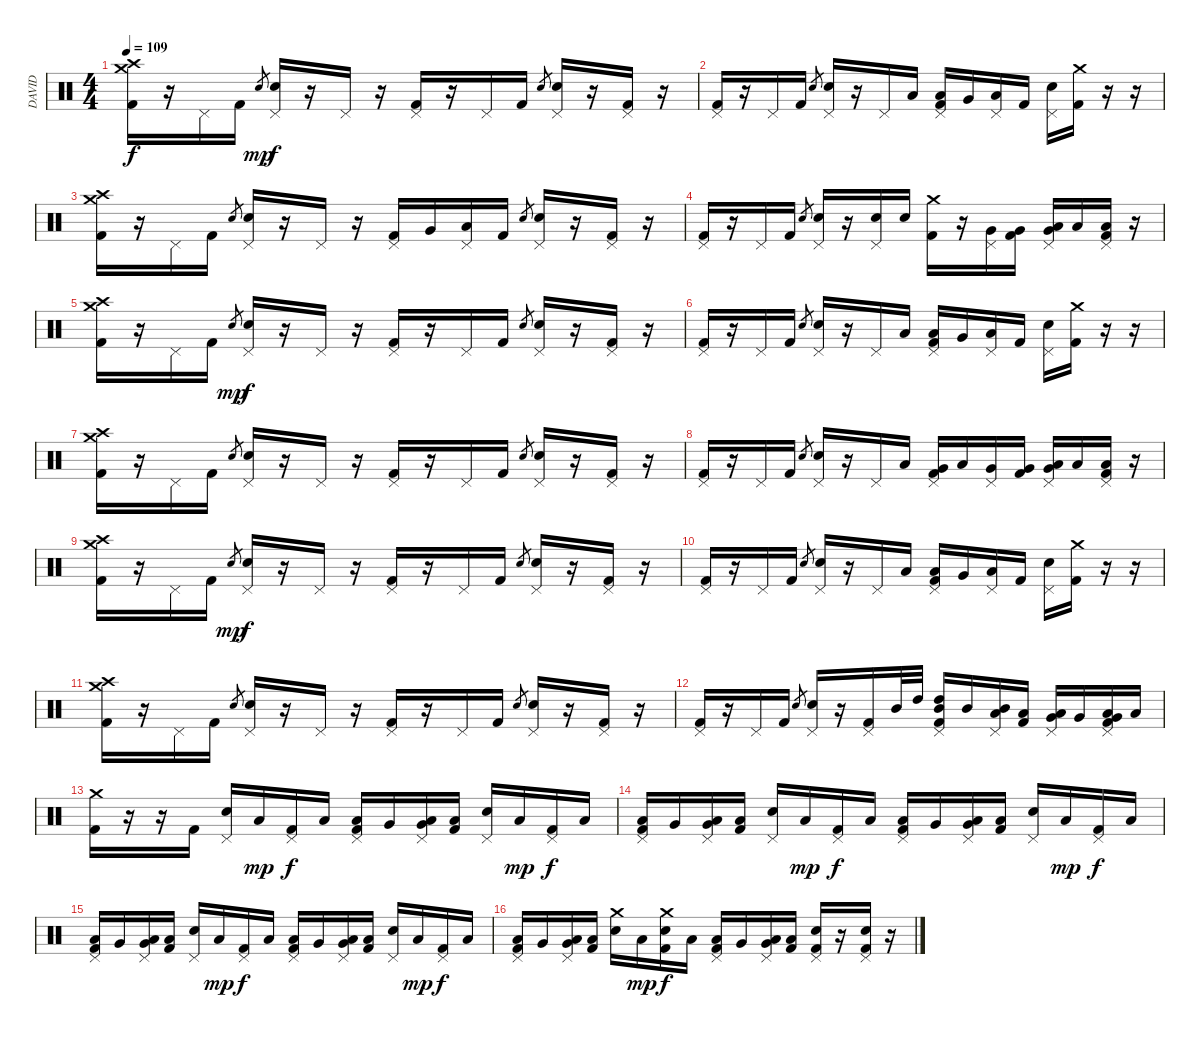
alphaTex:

\track ("DAVID" "DAVID") {instrument percussion}
\staff {score}
\articulation defaults
\ts (4 4)
\tempo 109
\clef neutral
\ks c
("Crash medium (hit)" "Crash high (hit)" "Kick (hit) 2").16{dy f} r.16 "Pedal Hi-Hat (hit)".16 "Kick (hit) 2".16 "Snare (hit) 2".8{gr dy mp} ("Pedal Hi-Hat (hit)" "Snare (hit) 2").16{dy f} r.16 "Pedal Hi-Hat (hit)".16 r.16 ("Pedal Hi-Hat (hit)" "Kick (hit) 2").16 r.16 "Pedal Hi-Hat (hit)".16 "Kick (hit) 2".16 "Snare (hit) 2".8{gr} ("Pedal Hi-Hat (hit)" "Snare (hit) 2").16 r.16 ("Pedal Hi-Hat (hit)" "Kick (hit) 2").16 r.16 |
("Pedal Hi-Hat (hit)" "Kick (hit) 2").16 r.16 "Pedal Hi-Hat (hit)".16 "Kick (hit) 2".16 "Snare (hit) 2".8{gr} ("Pedal Hi-Hat (hit)" "Snare (hit) 2").16 r.16 "Pedal Hi-Hat (hit)".16 "Low Tom (hit)".16 ("Pedal Hi-Hat (hit)" "Low Tom (hit)" "Kick (hit) 2").16 "Very Low Tom (hit)".16 ("Pedal Hi-Hat (hit)" "Low Floor Tom (hit)").16 "Kick (hit) 2".16 ("Pedal Hi-Hat (hit)" "Snare (hit) 2").16 ("Crash medium (hit)" "Kick (hit) 2").16 r.16 r.16 |
("Crash medium (hit)" "Crash high (hit)" "Kick (hit) 2").16 r.16 "Pedal Hi-Hat (hit)".16 "Kick (hit) 2".16 "Snare (hit) 2".8{gr} ("Pedal Hi-Hat (hit)" "Snare (hit) 2").16 r.16 "Pedal Hi-Hat (hit)".16 r.16 ("Pedal Hi-Hat (hit)" "Kick (hit) 2").16 "Very Low Tom (hit)".16 ("Pedal Hi-Hat (hit)" "Low Floor Tom (hit)").16 "Kick (hit) 2".16 "Snare (hit) 2".8{gr} ("Pedal Hi-Hat (hit)" "Snare (hit) 2").16 r.16 ("Pedal Hi-Hat (hit)" "Kick (hit) 2").16 r.16 |
("Pedal Hi-Hat (hit)" "Kick (hit) 2").16 r.16 "Pedal Hi-Hat (hit)".16 "Kick (hit) 2".16 "Snare (hit) 2".8{gr} ("Pedal Hi-Hat (hit)" "Snare (hit) 2").16 r.16 ("Pedal Hi-Hat (hit)" "Snare (hit) 2").16 "Snare (hit) 2".16 ("Crash medium (hit)" "Kick (hit) 2").16 r.16 ("Pedal Hi-Hat (hit)" "Very Low Tom (hit)").16 ("Very Low Tom (hit)" "Kick (hit) 2").16 ("Pedal Hi-Hat (hit)" "Very Low Tom (hit)" "Low Floor Tom (hit)").16 "Low Floor Tom (hit)".16 ("Pedal Hi-Hat (hit)" "Low Floor Tom (hit)" "Kick (hit) 2").16 r.16 |
("Crash medium (hit)" "Crash high (hit)" "Kick (hit) 2").16 r.16 "Pedal Hi-Hat (hit)".16 "Kick (hit) 2".16 "Snare (hit) 2".8{gr dy mp} ("Pedal Hi-Hat (hit)" "Snare (hit) 2").16{dy f} r.16 "Pedal Hi-Hat (hit)".16 r.16 ("Pedal Hi-Hat (hit)" "Kick (hit) 2").16 r.16 "Pedal Hi-Hat (hit)".16 "Kick (hit) 2".16 "Snare (hit) 2".8{gr} ("Pedal Hi-Hat (hit)" "Snare (hit) 2").16 r.16 ("Pedal Hi-Hat (hit)" "Kick (hit) 2").16 r.16 |
("Pedal Hi-Hat (hit)" "Kick (hit) 2").16 r.16 "Pedal Hi-Hat (hit)".16 "Kick (hit) 2".16 "Snare (hit) 2".8{gr} ("Pedal Hi-Hat (hit)" "Snare (hit) 2").16 r.16 "Pedal Hi-Hat (hit)".16 "Low Tom (hit)".16 ("Pedal Hi-Hat (hit)" "Low Tom (hit)" "Kick (hit) 2").16 "Very Low Tom (hit)".16 ("Pedal Hi-Hat (hit)" "Low Floor Tom (hit)").16 "Kick (hit) 2".16 ("Pedal Hi-Hat (hit)" "Snare (hit) 2").16 ("Crash medium (hit)" "Kick (hit) 2").16 r.16 r.16 |
("Crash medium (hit)" "Crash high (hit)" "Kick (hit) 2").16 r.16 "Pedal Hi-Hat (hit)".16 "Kick (hit) 2".16 "Snare (hit) 2".8{gr} ("Pedal Hi-Hat (hit)" "Snare (hit) 2").16 r.16 "Pedal Hi-Hat (hit)".16 r.16 ("Pedal Hi-Hat (hit)" "Kick (hit) 2").16 r.16 "Pedal Hi-Hat (hit)".16 "Kick (hit) 2".16 "Snare (hit) 2".8{gr} ("Pedal Hi-Hat (hit)" "Snare (hit) 2").16 r.16 ("Pedal Hi-Hat (hit)" "Kick (hit) 2").16 r.16 |
("Pedal Hi-Hat (hit)" "Kick (hit) 2").16 r.16 "Pedal Hi-Hat (hit)".16 "Kick (hit) 2".16 "Snare (hit) 2".8{gr} ("Pedal Hi-Hat (hit)" "Snare (hit) 2").16 r.16 "Pedal Hi-Hat (hit)".16 "Low Tom (hit)".16 ("Pedal Hi-Hat (hit)" "Very Low Tom (hit)" "Kick (hit) 2").16 "Low Tom (hit)".16 ("Pedal Hi-Hat (hit)" "Very Low Tom (hit)").16 ("Very Low Tom (hit)" "Kick (hit) 2").16 ("Pedal Hi-Hat (hit)" "Very Low Tom (hit)" "Low Floor Tom (hit)").16 "Low Floor Tom (hit)".16 ("Pedal Hi-Hat (hit)" "Low Floor Tom (hit)" "Kick (hit) 2").16 r.16 |
("Crash medium (hit)" "Crash high (hit)" "Kick (hit) 2").16 r.16 "Pedal Hi-Hat (hit)".16 "Kick (hit) 2".16 "Snare (hit) 2".8{gr dy mp} ("Pedal Hi-Hat (hit)" "Snare (hit) 2").16{dy f} r.16 "Pedal Hi-Hat (hit)".16 r.16 ("Pedal Hi-Hat (hit)" "Kick (hit) 2").16 r.16 "Pedal Hi-Hat (hit)".16 "Kick (hit) 2".16 "Snare (hit) 2".8{gr} ("Pedal Hi-Hat (hit)" "Snare (hit) 2").16 r.16 ("Pedal Hi-Hat (hit)" "Kick (hit) 2").16 r.16 |
("Pedal Hi-Hat (hit)" "Kick (hit) 2").16 r.16 "Pedal Hi-Hat (hit)".16 "Kick (hit) 2".16 "Snare (hit) 2".8{gr} ("Pedal Hi-Hat (hit)" "Snare (hit) 2").16 r.16 "Pedal Hi-Hat (hit)".16 "Low Tom (hit)".16 ("Pedal Hi-Hat (hit)" "Low Tom (hit)" "Kick (hit) 2").16 "Very Low Tom (hit)".16 ("Pedal Hi-Hat (hit)" "Low Floor Tom (hit)").16 "Kick (hit) 2".16 ("Pedal Hi-Hat (hit)" "Snare (hit) 2").16 ("Crash medium (hit)" "Kick (hit) 2").16 r.16 r.16 |
("Crash medium (hit)" "Crash high (hit)" "Kick (hit) 2").16 r.16 "Pedal Hi-Hat (hit)".16 "Kick (hit) 2".16 "Snare (hit) 2".8{gr} ("Pedal Hi-Hat (hit)" "Snare (hit) 2").16 r.16 "Pedal Hi-Hat (hit)".16 r.16 ("Pedal Hi-Hat (hit)" "Kick (hit) 2").16 r.16 "Pedal Hi-Hat (hit)".16 "Kick (hit) 2".16 "Snare (hit) 2".8{gr} ("Pedal Hi-Hat (hit)" "Snare (hit) 2").16 r.16 ("Pedal Hi-Hat (hit)" "Kick (hit) 2").16 r.16 |
("Pedal Hi-Hat (hit)" "Kick (hit) 2").16 r.16 "Pedal Hi-Hat (hit)".16 "Kick (hit) 2".16 "Snare (hit) 2".8{gr} ("Pedal Hi-Hat (hit)" "Snare (hit) 2").16 r.16 ("Pedal Hi-Hat (hit)" "Kick (hit) 2").16 "Mid Tom (hit)".32 "High Tom (hit)".32 ("Pedal Hi-Hat (hit)" "High Tom (hit)" "Mid Tom (hit)" "Kick (hit) 2").16 "Mid Tom (hit)".16 ("Pedal Hi-Hat (hit)" "Low Tom (hit)" "Mid Tom (hit)").16 ("Low Tom (hit)" "Kick (hit) 2").16 ("Pedal Hi-Hat (hit)" "Very Low Tom (hit)" "Low Tom (hit)").16 "Very Low Tom (hit)".16 ("Pedal Hi-Hat (hit)" "Very Low Tom (hit)" "Low Floor Tom (hit)" "Kick (hit) 2").16 "Low Floor Tom (hit)".16 |
("Crash medium (hit)" "Kick (hit) 2").16 r.16 r.16 "Kick (hit) 2".16 ("Pedal Hi-Hat (hit)" "Snare (hit) 2").16 "Low Floor Tom (hit)".16{dy mp} ("Pedal Hi-Hat (hit)" "Kick (hit) 2").16{dy f} "Low Tom (hit)".16 ("Pedal Hi-Hat (hit)" "Low Tom (hit)" "Kick (hit) 2").16 "Very Low Tom (hit)".16 ("Pedal Hi-Hat (hit)" "Very Low Tom (hit)" "Low Floor Tom (hit)").16 ("Low Floor Tom (hit)" "Kick (hit) 2").16 ("Pedal Hi-Hat (hit)" "Snare (hit) 2").16 "Low Floor Tom (hit)".16{dy mp} ("Pedal Hi-Hat (hit)" "Kick (hit) 2").16{dy f} "Low Tom (hit)".16 |
("Pedal Hi-Hat (hit)" "Low Tom (hit)" "Kick (hit) 2").16 "Very Low Tom (hit)".16 ("Pedal Hi-Hat (hit)" "Very Low Tom (hit)" "Low Floor Tom (hit)").16 ("Low Floor Tom (hit)" "Kick (hit) 2").16 ("Pedal Hi-Hat (hit)" "Snare (hit) 2").16 "Low Floor Tom (hit)".16{dy mp} ("Pedal Hi-Hat (hit)" "Kick (hit) 2").16{dy f} "Low Tom (hit)".16 ("Pedal Hi-Hat (hit)" "Low Tom (hit)" "Kick (hit) 2").16 "Very Low Tom (hit)".16 ("Pedal Hi-Hat (hit)" "Very Low Tom (hit)" "Low Floor Tom (hit)").16 ("Low Floor Tom (hit)" "Kick (hit) 2").16 ("Pedal Hi-Hat (hit)" "Snare (hit) 2").16 "Low Floor Tom (hit)".16{dy mp} ("Pedal Hi-Hat (hit)" "Kick (hit) 2").16{dy f} "Low Tom (hit)".16 |
("Pedal Hi-Hat (hit)" "Low Tom (hit)" "Kick (hit) 2").16 "Very Low Tom (hit)".16 ("Pedal Hi-Hat (hit)" "Very Low Tom (hit)" "Low Floor Tom (hit)").16 ("Low Floor Tom (hit)" "Kick (hit) 2").16 ("Pedal Hi-Hat (hit)" "Snare (hit) 2").16 "Low Floor Tom (hit)".16{dy mp} ("Pedal Hi-Hat (hit)" "Kick (hit) 2").16{dy f} "Low Tom (hit)".16 ("Pedal Hi-Hat (hit)" "Low Tom (hit)" "Kick (hit) 2").16 "Very Low Tom (hit)".16 ("Pedal Hi-Hat (hit)" "Very Low Tom (hit)" "Low Floor Tom (hit)").16 ("Low Floor Tom (hit)" "Kick (hit) 2").16 ("Pedal Hi-Hat (hit)" "Snare (hit) 2").16 "Low Floor Tom (hit)".16{dy mp} ("Pedal Hi-Hat (hit)" "Kick (hit) 2").16{dy f} "Low Tom (hit)".16 |
("Pedal Hi-Hat (hit)" "Low Tom (hit)" "Kick (hit) 2").16 "Very Low Tom (hit)".16 ("Pedal Hi-Hat (hit)" "Very Low Tom (hit)" "Low Floor Tom (hit)").16 ("Low Floor Tom (hit)" "Kick (hit) 2").16 ("Crash medium (hit)" "Snare (hit) 2").16 "Low Floor Tom (hit)".16{dy mp} ("Crash medium (hit)" "Snare (hit) 2" "Kick (hit) 2").16{dy f} "Low Tom (hit)".16 ("Pedal Hi-Hat (hit)" "Low Tom (hit)" "Kick (hit) 2").16 "Very Low Tom (hit)".16 ("Pedal Hi-Hat (hit)" "Very Low Tom (hit)" "Low Floor Tom (hit)").16 ("Low Floor Tom (hit)" "Kick (hit) 2").16 ("Pedal Hi-Hat (hit)" "Snare (hit) 2" "Kick (hit) 2").16 r.16 ("Pedal Hi-Hat (hit)" "Snare (hit) 2" "Kick (hit) 2").16 r.16
